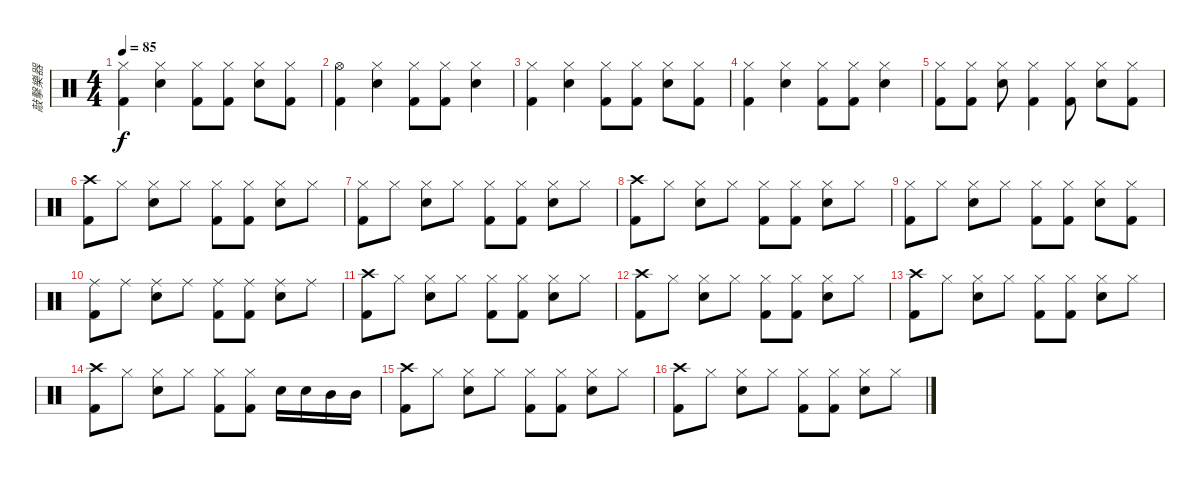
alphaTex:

\track ("敲擊樂器" "敲擊樂器") {instrument percussion}
\staff {score}
\articulation defaults
\ts (4 4)
\tempo 85
\clef neutral
\ks c
("Hi-Hat (closed)" "Kick (hit) 2").4{dy f} ("Hi-Hat (closed)" "Snare (hit) 2").4 ("Hi-Hat (closed)" "Kick (hit) 2").8 ("Hi-Hat (closed)" "Kick (hit) 2").8 ("Hi-Hat (closed)" "Snare (hit) 2").8 ("Hi-Hat (closed)" "Kick (hit) 2").8 |
("Hi-Hat (open)" "Kick (hit) 2").4 ("Hi-Hat (closed)" "Snare (hit) 2").4 ("Hi-Hat (closed)" "Kick (hit) 2").8 ("Hi-Hat (closed)" "Kick (hit) 2").8 ("Hi-Hat (closed)" "Snare (hit) 2").4 |
("Hi-Hat (closed)" "Kick (hit) 2").4 ("Hi-Hat (closed)" "Snare (hit) 2").4 ("Hi-Hat (closed)" "Kick (hit) 2").8 ("Hi-Hat (closed)" "Kick (hit) 2").8 ("Hi-Hat (closed)" "Snare (hit) 2").8 ("Hi-Hat (closed)" "Kick (hit) 2").8 |
("Hi-Hat (closed)" "Kick (hit) 2").4 ("Hi-Hat (closed)" "Snare (hit) 2").4 ("Hi-Hat (closed)" "Kick (hit) 2").8 ("Hi-Hat (closed)" "Kick (hit) 2").8 ("Hi-Hat (closed)" "Snare (hit) 2").4 |
("Hi-Hat (closed)" "Kick (hit) 2").8 ("Hi-Hat (closed)" "Kick (hit) 2").8 ("Hi-Hat (closed)" "Snare (hit) 2").8 ("Hi-Hat (closed)" "Kick (hit) 2").4 ("Hi-Hat (closed)" "Kick (hit) 2").8 ("Hi-Hat (closed)" "Snare (hit) 2").8 ("Hi-Hat (closed)" "Kick (hit) 2").8 |
("Crash high (hit)" "Kick (hit) 2").8 "Hi-Hat (closed)".8 ("Hi-Hat (closed)" "Snare (hit) 2").8 "Hi-Hat (closed)".8 ("Hi-Hat (closed)" "Kick (hit) 2").8 ("Hi-Hat (closed)" "Kick (hit) 2").8 ("Hi-Hat (closed)" "Snare (hit) 2").8 "Hi-Hat (closed)".8 |
("Hi-Hat (closed)" "Kick (hit) 2").8 "Hi-Hat (closed)".8 ("Hi-Hat (closed)" "Snare (hit) 2").8 "Hi-Hat (closed)".8 ("Hi-Hat (closed)" "Kick (hit) 2").8 ("Hi-Hat (closed)" "Kick (hit) 2").8 ("Hi-Hat (closed)" "Snare (hit) 2").8 "Hi-Hat (closed)".8 |
("Crash high (hit)" "Kick (hit) 2").8 "Hi-Hat (closed)".8 ("Hi-Hat (closed)" "Snare (hit) 2").8 "Hi-Hat (closed)".8 ("Hi-Hat (closed)" "Kick (hit) 2").8 ("Hi-Hat (closed)" "Kick (hit) 2").8 ("Hi-Hat (closed)" "Snare (hit) 2").8 "Hi-Hat (closed)".8 |
("Hi-Hat (closed)" "Kick (hit) 2").8 "Hi-Hat (closed)".8 ("Hi-Hat (closed)" "Snare (hit) 2").8 "Hi-Hat (closed)".8 ("Hi-Hat (closed)" "Kick (hit) 2").8 ("Hi-Hat (closed)" "Kick (hit) 2").8 ("Hi-Hat (closed)" "Snare (hit) 2").8 ("Hi-Hat (closed)" "Kick (hit) 2").8 |
("Ride (middle)" "Kick (hit) 2").8 "Ride (middle)".8 ("Ride (middle)" "Snare (hit) 2").8 "Ride (middle)".8 ("Ride (middle)" "Kick (hit) 2").8 ("Ride (middle)" "Kick (hit) 2").8 ("Ride (middle)" "Snare (hit) 2").8 "Ride (middle)".8 |
("Crash high (hit)" "Kick (hit) 2").8 "Hi-Hat (closed)".8 ("Hi-Hat (closed)" "Snare (hit) 2").8 "Hi-Hat (closed)".8 ("Hi-Hat (closed)" "Kick (hit) 2").8 ("Hi-Hat (closed)" "Kick (hit) 2").8 ("Hi-Hat (closed)" "Snare (hit) 2").8 "Hi-Hat (closed)".8 |
("Crash high (hit)" "Kick (hit) 2").8 "Hi-Hat (closed)".8 ("Hi-Hat (closed)" "Snare (hit) 2").8 "Hi-Hat (closed)".8 ("Hi-Hat (closed)" "Kick (hit) 2").8 ("Hi-Hat (closed)" "Kick (hit) 2").8 ("Hi-Hat (closed)" "Snare (hit) 2").8 "Hi-Hat (closed)".8 |
("Crash high (hit)" "Kick (hit) 2").8 "Hi-Hat (closed)".8 ("Hi-Hat (closed)" "Snare (hit) 2").8 "Hi-Hat (closed)".8 ("Hi-Hat (closed)" "Kick (hit) 2").8 ("Hi-Hat (closed)" "Kick (hit) 2").8 ("Hi-Hat (closed)" "Snare (hit) 2").8 "Hi-Hat (closed)".8 |
("Crash high (hit)" "Kick (hit) 2").8 "Hi-Hat (closed)".8 ("Hi-Hat (closed)" "Snare (hit) 2").8 "Hi-Hat (closed)".8 ("Hi-Hat (closed)" "Kick (hit) 2").8 ("Hi-Hat (closed)" "Kick (hit) 2").8 "Snare (hit) 2".16 "Snare (hit) 2".16 "Mid Tom (hit)".16 "Mid Tom (hit)".16 |
("Crash high (hit)" "Kick (hit) 2").8 "Hi-Hat (closed)".8 ("Hi-Hat (closed)" "Snare (hit) 2").8 "Hi-Hat (closed)".8 ("Hi-Hat (closed)" "Kick (hit) 2").8 ("Hi-Hat (closed)" "Kick (hit) 2").8 ("Hi-Hat (closed)" "Snare (hit) 2").8 "Hi-Hat (closed)".8 |
("Crash high (hit)" "Kick (hit) 2").8 "Hi-Hat (closed)".8 ("Hi-Hat (closed)" "Snare (hit) 2").8 "Hi-Hat (closed)".8 ("Hi-Hat (closed)" "Kick (hit) 2").8 ("Hi-Hat (closed)" "Kick (hit) 2").8 ("Hi-Hat (closed)" "Snare (hit) 2").8 "Hi-Hat (closed)".8
